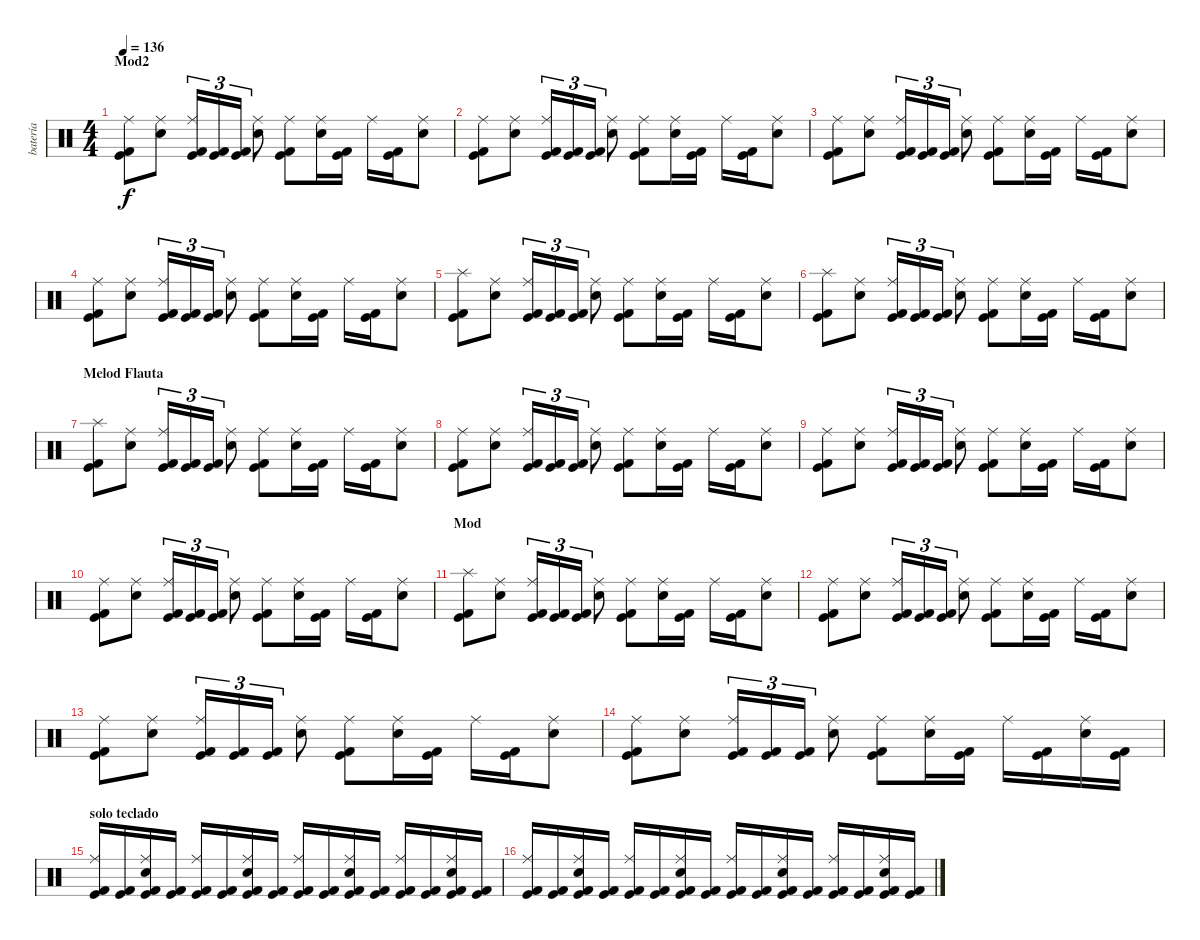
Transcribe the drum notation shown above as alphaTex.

\track ("batería" "batería") {instrument percussion}
\staff {score}
\articulation defaults
\ts (4 4)
\section ("" "Mod2")
\tempo 136
\clef neutral
\ks c
("Kick (hit) 2" "Ride (middle)" "Kick (hit)").8{dy f} ("Snare (hit) 2" "Ride (middle)").8 ("Kick (hit) 2" "Ride (middle)" "Kick (hit)").16{tu (3 2)} ("Kick (hit) 2" "Kick (hit)").16{tu (3 2)} ("Kick (hit) 2" "Kick (hit)").16{tu (3 2)} ("Snare (hit) 2" "Ride (middle)").8 ("Kick (hit) 2" "Ride (middle)" "Kick (hit)").8 ("Snare (hit) 2" "Ride (middle)").16 ("Kick (hit) 2" "Kick (hit)").16 "Ride (middle)".16 ("Kick (hit) 2" "Kick (hit)").16 ("Snare (hit) 2" "Ride (middle)").8 |
("Kick (hit) 2" "Ride (middle)" "Kick (hit)").8 ("Snare (hit) 2" "Ride (middle)").8 ("Kick (hit) 2" "Ride (middle)" "Kick (hit)").16{tu (3 2)} ("Kick (hit) 2" "Kick (hit)").16{tu (3 2)} ("Kick (hit) 2" "Kick (hit)").16{tu (3 2)} ("Snare (hit) 2" "Ride (middle)").8 ("Kick (hit) 2" "Ride (middle)" "Kick (hit)").8 ("Snare (hit) 2" "Ride (middle)").16 ("Kick (hit) 2" "Kick (hit)").16 "Ride (middle)".16 ("Kick (hit) 2" "Kick (hit)").16 ("Snare (hit) 2" "Ride (middle)").8 |
("Kick (hit) 2" "Ride (middle)" "Kick (hit)").8 ("Snare (hit) 2" "Ride (middle)").8 ("Kick (hit) 2" "Ride (middle)" "Kick (hit)").16{tu (3 2)} ("Kick (hit) 2" "Kick (hit)").16{tu (3 2)} ("Kick (hit) 2" "Kick (hit)").16{tu (3 2)} ("Snare (hit) 2" "Ride (middle)").8 ("Kick (hit) 2" "Ride (middle)" "Kick (hit)").8 ("Snare (hit) 2" "Ride (middle)").16 ("Kick (hit) 2" "Kick (hit)").16 "Ride (middle)".16 ("Kick (hit) 2" "Kick (hit)").16 ("Snare (hit) 2" "Ride (middle)").8 |
("Kick (hit) 2" "Ride (middle)" "Kick (hit)").8 ("Snare (hit) 2" "Ride (middle)").8 ("Kick (hit) 2" "Ride (middle)" "Kick (hit)").16{tu (3 2)} ("Kick (hit) 2" "Kick (hit)").16{tu (3 2)} ("Kick (hit) 2" "Kick (hit)").16{tu (3 2)} ("Snare (hit) 2" "Ride (middle)").8 ("Kick (hit) 2" "Ride (middle)" "Kick (hit)").8 ("Snare (hit) 2" "Ride (middle)").16 ("Kick (hit) 2" "Kick (hit)").16 "Ride (middle)".16 ("Kick (hit) 2" "Kick (hit)").16 ("Snare (hit) 2" "Ride (middle)").8 |
("Kick (hit) 2" "Splash (hit)" "Kick (hit)").8 ("Snare (hit) 2" "Ride (middle)").8 ("Kick (hit) 2" "Ride (middle)" "Kick (hit)").16{tu (3 2)} ("Kick (hit) 2" "Kick (hit)").16{tu (3 2)} ("Kick (hit) 2" "Kick (hit)").16{tu (3 2)} ("Snare (hit) 2" "Ride (middle)").8 ("Kick (hit) 2" "Ride (middle)" "Kick (hit)").8 ("Snare (hit) 2" "Ride (middle)").16 ("Kick (hit) 2" "Kick (hit)").16 "Ride (middle)".16 ("Kick (hit) 2" "Kick (hit)").16 ("Snare (hit) 2" "Ride (middle)").8 |
("Kick (hit) 2" "Splash (hit)" "Kick (hit)").8 ("Snare (hit) 2" "Ride (middle)").8 ("Kick (hit) 2" "Ride (middle)" "Kick (hit)").16{tu (3 2)} ("Kick (hit) 2" "Kick (hit)").16{tu (3 2)} ("Kick (hit) 2" "Kick (hit)").16{tu (3 2)} ("Snare (hit) 2" "Ride (middle)").8 ("Kick (hit) 2" "Ride (middle)" "Kick (hit)").8 ("Snare (hit) 2" "Ride (middle)").16 ("Kick (hit) 2" "Kick (hit)").16 "Ride (middle)".16 ("Kick (hit) 2" "Kick (hit)").16 ("Snare (hit) 2" "Ride (middle)").8 |
\section ("" "Melod Flauta")
("Kick (hit) 2" "Splash (hit)" "Kick (hit)").8 ("Snare (hit) 2" "Ride (middle)").8 ("Kick (hit) 2" "Ride (middle)" "Kick (hit)").16{tu (3 2)} ("Kick (hit) 2" "Kick (hit)").16{tu (3 2)} ("Kick (hit) 2" "Kick (hit)").16{tu (3 2)} ("Snare (hit) 2" "Ride (middle)").8 ("Kick (hit) 2" "Ride (middle)" "Kick (hit)").8 ("Snare (hit) 2" "Ride (middle)").16 ("Kick (hit) 2" "Kick (hit)").16 "Ride (middle)".16 ("Kick (hit) 2" "Kick (hit)").16 ("Snare (hit) 2" "Ride (middle)").8 |
("Kick (hit) 2" "Ride (middle)" "Kick (hit)").8 ("Snare (hit) 2" "Ride (middle)").8 ("Kick (hit) 2" "Ride (middle)" "Kick (hit)").16{tu (3 2)} ("Kick (hit) 2" "Kick (hit)").16{tu (3 2)} ("Kick (hit) 2" "Kick (hit)").16{tu (3 2)} ("Snare (hit) 2" "Ride (middle)").8 ("Kick (hit) 2" "Ride (middle)" "Kick (hit)").8 ("Snare (hit) 2" "Ride (middle)").16 ("Kick (hit) 2" "Kick (hit)").16 "Ride (middle)".16 ("Kick (hit) 2" "Kick (hit)").16 ("Snare (hit) 2" "Ride (middle)").8 |
("Kick (hit) 2" "Ride (middle)" "Kick (hit)").8 ("Snare (hit) 2" "Ride (middle)").8 ("Kick (hit) 2" "Ride (middle)" "Kick (hit)").16{tu (3 2)} ("Kick (hit) 2" "Kick (hit)").16{tu (3 2)} ("Kick (hit) 2" "Kick (hit)").16{tu (3 2)} ("Snare (hit) 2" "Ride (middle)").8 ("Kick (hit) 2" "Ride (middle)" "Kick (hit)").8 ("Snare (hit) 2" "Ride (middle)").16 ("Kick (hit) 2" "Kick (hit)").16 "Ride (middle)".16 ("Kick (hit) 2" "Kick (hit)").16 ("Snare (hit) 2" "Ride (middle)").8 |
("Kick (hit) 2" "Ride (middle)" "Kick (hit)").8 ("Snare (hit) 2" "Ride (middle)").8 ("Kick (hit) 2" "Ride (middle)" "Kick (hit)").16{tu (3 2)} ("Kick (hit) 2" "Kick (hit)").16{tu (3 2)} ("Kick (hit) 2" "Kick (hit)").16{tu (3 2)} ("Snare (hit) 2" "Ride (middle)").8 ("Kick (hit) 2" "Ride (middle)" "Kick (hit)").8 ("Snare (hit) 2" "Ride (middle)").16 ("Kick (hit) 2" "Kick (hit)").16 "Ride (middle)".16 ("Kick (hit) 2" "Kick (hit)").16 ("Snare (hit) 2" "Ride (middle)").8 |
\section ("" "Mod")
("Kick (hit) 2" "Splash (hit)" "Kick (hit)").8 ("Snare (hit) 2" "Ride (middle)").8 ("Kick (hit) 2" "Ride (middle)" "Kick (hit)").16{tu (3 2)} ("Kick (hit) 2" "Kick (hit)").16{tu (3 2)} ("Kick (hit) 2" "Kick (hit)").16{tu (3 2)} ("Snare (hit) 2" "Ride (middle)").8 ("Kick (hit) 2" "Ride (middle)" "Kick (hit)").8 ("Snare (hit) 2" "Ride (middle)").16 ("Kick (hit) 2" "Kick (hit)").16 "Ride (middle)".16 ("Kick (hit) 2" "Kick (hit)").16 ("Snare (hit) 2" "Ride (middle)").8 |
("Kick (hit) 2" "Ride (middle)" "Kick (hit)").8 ("Snare (hit) 2" "Ride (middle)").8 ("Kick (hit) 2" "Ride (middle)" "Kick (hit)").16{tu (3 2)} ("Kick (hit) 2" "Kick (hit)").16{tu (3 2)} ("Kick (hit) 2" "Kick (hit)").16{tu (3 2)} ("Snare (hit) 2" "Ride (middle)").8 ("Kick (hit) 2" "Ride (middle)" "Kick (hit)").8 ("Snare (hit) 2" "Ride (middle)").16 ("Kick (hit) 2" "Kick (hit)").16 "Ride (middle)".16 ("Kick (hit) 2" "Kick (hit)").16 ("Snare (hit) 2" "Ride (middle)").8 |
("Kick (hit) 2" "Ride (middle)" "Kick (hit)").8 ("Snare (hit) 2" "Ride (middle)").8 ("Kick (hit) 2" "Ride (middle)" "Kick (hit)").16{tu (3 2)} ("Kick (hit) 2" "Kick (hit)").16{tu (3 2)} ("Kick (hit) 2" "Kick (hit)").16{tu (3 2)} ("Snare (hit) 2" "Ride (middle)").8 ("Kick (hit) 2" "Ride (middle)" "Kick (hit)").8 ("Snare (hit) 2" "Ride (middle)").16 ("Kick (hit) 2" "Kick (hit)").16 "Ride (middle)".16 ("Kick (hit) 2" "Kick (hit)").16 ("Snare (hit) 2" "Ride (middle)").8 |
("Kick (hit) 2" "Ride (middle)" "Kick (hit)").8 ("Snare (hit) 2" "Ride (middle)").8 ("Kick (hit) 2" "Ride (middle)" "Kick (hit)").16{tu (3 2)} ("Kick (hit) 2" "Kick (hit)").16{tu (3 2)} ("Kick (hit) 2" "Kick (hit)").16{tu (3 2)} ("Snare (hit) 2" "Ride (middle)").8 ("Kick (hit) 2" "Ride (middle)" "Kick (hit)").8 ("Snare (hit) 2" "Ride (middle)").16 ("Kick (hit) 2" "Kick (hit)").16 "Ride (middle)".16 ("Kick (hit) 2" "Kick (hit)").16 ("Snare (hit) 2" "Ride (middle)").16 ("Kick (hit) 2" "Kick (hit)").16 |
\section ("" "solo teclado")
("Kick (hit)" "Kick (hit) 2" "Ride (middle)").16 ("Kick (hit)" "Kick (hit) 2").16 ("Kick (hit)" "Kick (hit) 2" "Snare (hit) 2" "Ride (middle)").16 ("Kick (hit)" "Kick (hit) 2").16 ("Kick (hit)" "Kick (hit) 2" "Ride (middle)").16 ("Kick (hit)" "Kick (hit) 2").16 ("Kick (hit)" "Kick (hit) 2" "Snare (hit) 2" "Ride (middle)").16 ("Kick (hit)" "Kick (hit) 2").16 ("Kick (hit)" "Kick (hit) 2" "Ride (middle)").16 ("Kick (hit)" "Kick (hit) 2").16 ("Kick (hit)" "Kick (hit) 2" "Snare (hit) 2" "Ride (middle)").16 ("Kick (hit)" "Kick (hit) 2").16 ("Kick (hit)" "Kick (hit) 2" "Ride (middle)").16 ("Kick (hit)" "Kick (hit) 2").16 ("Kick (hit)" "Kick (hit) 2" "Snare (hit) 2" "Ride (middle)").16 ("Kick (hit)" "Kick (hit) 2").16 |
("Kick (hit)" "Kick (hit) 2" "Ride (middle)").16 ("Kick (hit)" "Kick (hit) 2").16 ("Kick (hit)" "Kick (hit) 2" "Snare (hit) 2" "Ride (middle)").16 ("Kick (hit)" "Kick (hit) 2").16 ("Kick (hit)" "Kick (hit) 2" "Ride (middle)").16 ("Kick (hit)" "Kick (hit) 2").16 ("Kick (hit)" "Kick (hit) 2" "Snare (hit) 2" "Ride (middle)").16 ("Kick (hit)" "Kick (hit) 2").16 ("Kick (hit)" "Kick (hit) 2" "Ride (middle)").16 ("Kick (hit)" "Kick (hit) 2").16 ("Kick (hit)" "Kick (hit) 2" "Snare (hit) 2" "Ride (middle)").16 ("Kick (hit)" "Kick (hit) 2").16 ("Kick (hit)" "Kick (hit) 2" "Ride (middle)").16 ("Kick (hit)" "Kick (hit) 2").16 ("Kick (hit)" "Kick (hit) 2" "Snare (hit) 2" "Ride (middle)").16 ("Kick (hit)" "Kick (hit) 2").16
